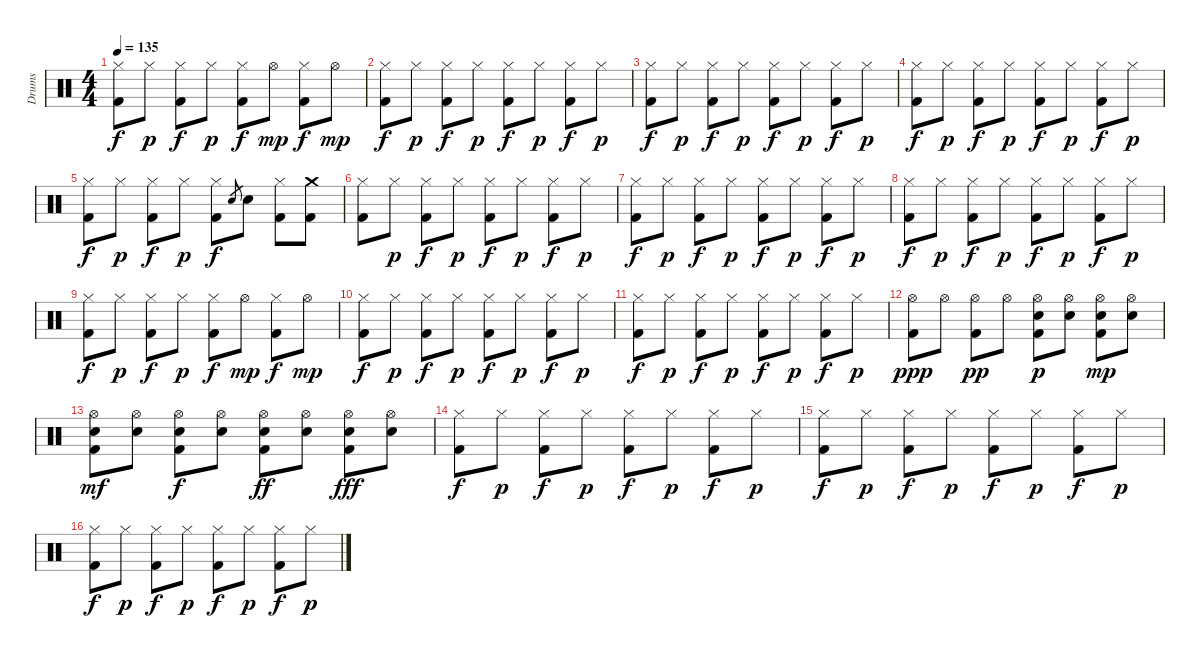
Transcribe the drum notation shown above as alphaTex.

\track ("Drums" "Drums") {instrument percussion}
\staff {score}
\articulation defaults
\ts (4 4)
\tempo 135
\clef neutral
\ks c
("Hi-Hat (closed)" "Kick (hit) 2").8{dy f} "Hi-Hat (closed)".8{dy p} ("Hi-Hat (closed)" "Kick (hit) 2").8{dy f} "Hi-Hat (closed)".8{dy p} ("Hi-Hat (closed)" "Kick (hit) 2").8{dy f} "Hi-Hat (open)".8{dy mp} ("Hi-Hat (closed)" "Kick (hit) 2").8{dy f} "Hi-Hat (open)".8{dy mp} |
("Hi-Hat (closed)" "Kick (hit) 2").8{dy f} "Hi-Hat (closed)".8{dy p} ("Hi-Hat (closed)" "Kick (hit) 2").8{dy f} "Hi-Hat (closed)".8{dy p} ("Hi-Hat (closed)" "Kick (hit) 2").8{dy f} "Hi-Hat (closed)".8{dy p} ("Hi-Hat (closed)" "Kick (hit) 2").8{dy f} "Hi-Hat (closed)".8{dy p} |
("Hi-Hat (closed)" "Kick (hit) 2").8{dy f} "Hi-Hat (closed)".8{dy p} ("Hi-Hat (closed)" "Kick (hit) 2").8{dy f} "Hi-Hat (closed)".8{dy p} ("Hi-Hat (closed)" "Kick (hit) 2").8{dy f} "Hi-Hat (closed)".8{dy p} ("Hi-Hat (closed)" "Kick (hit) 2").8{dy f} "Hi-Hat (closed)".8{dy p} |
("Hi-Hat (closed)" "Kick (hit) 2").8{dy f} "Hi-Hat (closed)".8{dy p} ("Hi-Hat (closed)" "Kick (hit) 2").8{dy f} "Hi-Hat (closed)".8{dy p} ("Hi-Hat (closed)" "Kick (hit) 2").8{dy f} "Hi-Hat (closed)".8{dy p} ("Hi-Hat (closed)" "Kick (hit) 2").8{dy f} "Hi-Hat (closed)".8{dy p} |
("Hi-Hat (closed)" "Kick (hit) 2").8{dy f} "Hi-Hat (closed)".8{dy p} ("Hi-Hat (closed)" "Kick (hit) 2").8{dy f} "Hi-Hat (closed)".8{dy p} ("Hi-Hat (closed)" "Kick (hit) 2").8{dy f} "Snare (hit) 2".8{gr} "Snare (hit) 2".8 ("Hi-Hat (closed)" "Kick (hit) 2").8 ("Crash medium (hit)" "Kick (hit) 2").8 |
("Hi-Hat (closed)" "Kick (hit) 2").8 "Hi-Hat (closed)".8{dy p} ("Hi-Hat (closed)" "Kick (hit) 2").8{dy f} "Hi-Hat (closed)".8{dy p} ("Hi-Hat (closed)" "Kick (hit) 2").8{dy f} "Hi-Hat (closed)".8{dy p} ("Hi-Hat (closed)" "Kick (hit) 2").8{dy f} "Hi-Hat (closed)".8{dy p} |
("Hi-Hat (closed)" "Kick (hit) 2").8{dy f} "Hi-Hat (closed)".8{dy p} ("Hi-Hat (closed)" "Kick (hit) 2").8{dy f} "Hi-Hat (closed)".8{dy p} ("Hi-Hat (closed)" "Kick (hit) 2").8{dy f} "Hi-Hat (closed)".8{dy p} ("Hi-Hat (closed)" "Kick (hit) 2").8{dy f} "Hi-Hat (closed)".8{dy p} |
("Hi-Hat (closed)" "Kick (hit) 2").8{dy f} "Hi-Hat (closed)".8{dy p} ("Hi-Hat (closed)" "Kick (hit) 2").8{dy f} "Hi-Hat (closed)".8{dy p} ("Hi-Hat (closed)" "Kick (hit) 2").8{dy f} "Hi-Hat (closed)".8{dy p} ("Hi-Hat (closed)" "Kick (hit) 2").8{dy f} "Hi-Hat (closed)".8{dy p} |
("Hi-Hat (closed)" "Kick (hit) 2").8{dy f} "Hi-Hat (closed)".8{dy p} ("Hi-Hat (closed)" "Kick (hit) 2").8{dy f} "Hi-Hat (closed)".8{dy p} ("Hi-Hat (closed)" "Kick (hit) 2").8{dy f} "Hi-Hat (open)".8{dy mp} ("Hi-Hat (closed)" "Kick (hit) 2").8{dy f} "Hi-Hat (open)".8{dy mp} |
("Hi-Hat (closed)" "Kick (hit) 2").8{dy f} "Hi-Hat (closed)".8{dy p} ("Hi-Hat (closed)" "Kick (hit) 2").8{dy f} "Hi-Hat (closed)".8{dy p} ("Hi-Hat (closed)" "Kick (hit) 2").8{dy f} "Hi-Hat (closed)".8{dy p} ("Hi-Hat (closed)" "Kick (hit) 2").8{dy f} "Hi-Hat (closed)".8{dy p} |
("Hi-Hat (closed)" "Kick (hit) 2").8{dy f} "Hi-Hat (closed)".8{dy p} ("Hi-Hat (closed)" "Kick (hit) 2").8{dy f} "Hi-Hat (closed)".8{dy p} ("Hi-Hat (closed)" "Kick (hit) 2").8{dy f} "Hi-Hat (closed)".8{dy p} ("Hi-Hat (closed)" "Kick (hit) 2").8{dy f} "Hi-Hat (closed)".8{dy p} |
("Hi-Hat (open)" "Kick (hit) 2").8{dy ppp} "Hi-Hat (open)".8 ("Hi-Hat (open)" "Kick (hit) 2").8{dy pp} "Hi-Hat (open)".8 ("Hi-Hat (open)" "Snare (hit) 2" "Kick (hit) 2").8{dy p} ("Hi-Hat (open)" "Snare (hit) 2").8 ("Hi-Hat (open)" "Snare (hit) 2" "Kick (hit) 2").8{dy mp} ("Hi-Hat (open)" "Snare (hit) 2").8 |
("Hi-Hat (open)" "Snare (hit) 2" "Kick (hit) 2").8{dy mf} ("Hi-Hat (open)" "Snare (hit) 2").8 ("Hi-Hat (open)" "Snare (hit) 2" "Kick (hit) 2").8{dy f} ("Hi-Hat (open)" "Snare (hit) 2").8 ("Hi-Hat (open)" "Snare (hit) 2" "Kick (hit) 2").8{dy ff} ("Hi-Hat (open)" "Snare (hit) 2").8 ("Hi-Hat (open)" "Snare (hit) 2" "Kick (hit) 2").8{dy fff} ("Hi-Hat (open)" "Snare (hit) 2").8 |
("Hi-Hat (closed)" "Kick (hit) 2").8{dy f} "Hi-Hat (closed)".8{dy p} ("Hi-Hat (closed)" "Kick (hit) 2").8{dy f} "Hi-Hat (closed)".8{dy p} ("Hi-Hat (closed)" "Kick (hit) 2").8{dy f} "Hi-Hat (closed)".8{dy p} ("Hi-Hat (closed)" "Kick (hit) 2").8{dy f} "Hi-Hat (closed)".8{dy p} |
("Hi-Hat (closed)" "Kick (hit) 2").8{dy f} "Hi-Hat (closed)".8{dy p} ("Hi-Hat (closed)" "Kick (hit) 2").8{dy f} "Hi-Hat (closed)".8{dy p} ("Hi-Hat (closed)" "Kick (hit) 2").8{dy f} "Hi-Hat (closed)".8{dy p} ("Hi-Hat (closed)" "Kick (hit) 2").8{dy f} "Hi-Hat (closed)".8{dy p} |
("Hi-Hat (closed)" "Kick (hit) 2").8{dy f} "Hi-Hat (closed)".8{dy p} ("Hi-Hat (closed)" "Kick (hit) 2").8{dy f} "Hi-Hat (closed)".8{dy p} ("Hi-Hat (closed)" "Kick (hit) 2").8{dy f} "Hi-Hat (closed)".8{dy p} ("Hi-Hat (closed)" "Kick (hit) 2").8{dy f} "Hi-Hat (closed)".8{dy p}
